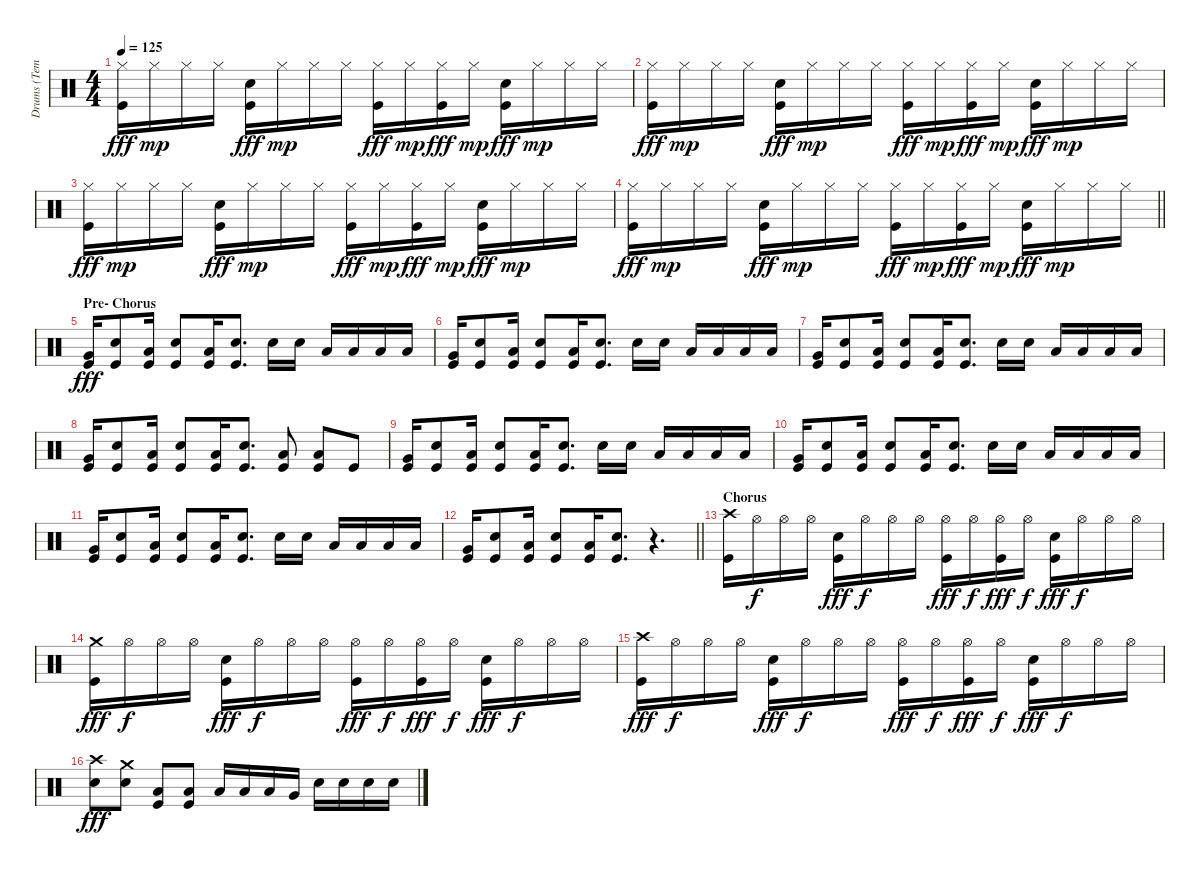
\track ("Drums (Tempesta)" "Drums (Tem") {instrument percussion}
\staff {score}
\articulation defaults
\ts (4 4)
\tempo 125
\clef neutral
\ks c
("Hi-Hat (closed)" "Kick (hit)").16{dy fff} "Hi-Hat (closed)".16{dy mp} "Hi-Hat (closed)".16 "Hi-Hat (closed)".16 ("Electric Snare (hit)" "Kick (hit)").16{dy fff} "Hi-Hat (closed)".16{dy mp} "Hi-Hat (closed)".16 "Hi-Hat (closed)".16 ("Hi-Hat (closed)" "Kick (hit)").16{dy fff} "Hi-Hat (closed)".16{dy mp} ("Hi-Hat (closed)" "Kick (hit)").16{dy fff} "Hi-Hat (closed)".16{dy mp} ("Electric Snare (hit)" "Kick (hit)").16{dy fff} "Hi-Hat (closed)".16{dy mp} "Hi-Hat (closed)".16 "Hi-Hat (closed)".16 |
("Hi-Hat (closed)" "Kick (hit)").16{dy fff} "Hi-Hat (closed)".16{dy mp} "Hi-Hat (closed)".16 "Hi-Hat (closed)".16 ("Electric Snare (hit)" "Kick (hit)").16{dy fff} "Hi-Hat (closed)".16{dy mp} "Hi-Hat (closed)".16 "Hi-Hat (closed)".16 ("Hi-Hat (closed)" "Kick (hit)").16{dy fff} "Hi-Hat (closed)".16{dy mp} ("Hi-Hat (closed)" "Kick (hit)").16{dy fff} "Hi-Hat (closed)".16{dy mp} ("Electric Snare (hit)" "Kick (hit)").16{dy fff} "Hi-Hat (closed)".16{dy mp} "Hi-Hat (closed)".16 "Hi-Hat (closed)".16 |
("Hi-Hat (closed)" "Kick (hit)").16{dy fff} "Hi-Hat (closed)".16{dy mp} "Hi-Hat (closed)".16 "Hi-Hat (closed)".16 ("Electric Snare (hit)" "Kick (hit)").16{dy fff} "Hi-Hat (closed)".16{dy mp} "Hi-Hat (closed)".16 "Hi-Hat (closed)".16 ("Hi-Hat (closed)" "Kick (hit)").16{dy fff} "Hi-Hat (closed)".16{dy mp} ("Hi-Hat (closed)" "Kick (hit)").16{dy fff} "Hi-Hat (closed)".16{dy mp} ("Electric Snare (hit)" "Kick (hit)").16{dy fff} "Hi-Hat (closed)".16{dy mp} "Hi-Hat (closed)".16 "Hi-Hat (closed)".16 |
\barLineRight lightlight
("Hi-Hat (closed)" "Kick (hit)").16{dy fff} "Hi-Hat (closed)".16{dy mp} "Hi-Hat (closed)".16 "Hi-Hat (closed)".16 ("Electric Snare (hit)" "Kick (hit)").16{dy fff} "Hi-Hat (closed)".16{dy mp} "Hi-Hat (closed)".16 "Hi-Hat (closed)".16 ("Hi-Hat (closed)" "Kick (hit)").16{dy fff} "Hi-Hat (closed)".16{dy mp} ("Hi-Hat (closed)" "Kick (hit)").16{dy fff} "Hi-Hat (closed)".16{dy mp} ("Electric Snare (hit)" "Kick (hit)").16{dy fff} "Hi-Hat (closed)".16{dy mp} "Hi-Hat (closed)".16 "Hi-Hat (closed)".16 |
\section ("" "Pre- Chorus")
("Very Low Tom (hit)" "Kick (hit)").16{dy fff} ("Electric Snare (hit)" "Kick (hit)").8 ("Low Floor Tom (hit)" "Kick (hit)").16 ("Electric Snare (hit)" "Kick (hit)").8 ("Low Floor Tom (hit)" "Kick (hit)").16 ("Electric Snare (hit)" "Kick (hit)").8{d} "Electric Snare (hit)".16 "Electric Snare (hit)".16 "Low Tom (hit)".16 "Low Tom (hit)".16 "Low Floor Tom (hit)".16 "Low Floor Tom (hit)".16 |
("Very Low Tom (hit)" "Kick (hit)").16 ("Electric Snare (hit)" "Kick (hit)").8 ("Low Floor Tom (hit)" "Kick (hit)").16 ("Electric Snare (hit)" "Kick (hit)").8 ("Low Floor Tom (hit)" "Kick (hit)").16 ("Electric Snare (hit)" "Kick (hit)").8{d} "Electric Snare (hit)".16 "Electric Snare (hit)".16 "Low Tom (hit)".16 "Low Tom (hit)".16 "Low Floor Tom (hit)".16 "Low Floor Tom (hit)".16 |
("Very Low Tom (hit)" "Kick (hit)").16 ("Electric Snare (hit)" "Kick (hit)").8 ("Low Floor Tom (hit)" "Kick (hit)").16 ("Electric Snare (hit)" "Kick (hit)").8 ("Low Floor Tom (hit)" "Kick (hit)").16 ("Electric Snare (hit)" "Kick (hit)").8{d} "Electric Snare (hit)".16 "Electric Snare (hit)".16 "Low Tom (hit)".16 "Low Tom (hit)".16 "Low Floor Tom (hit)".16 "Low Floor Tom (hit)".16 |
("Very Low Tom (hit)" "Kick (hit)").16 ("Electric Snare (hit)" "Kick (hit)").8 ("Low Floor Tom (hit)" "Kick (hit)").16 ("Electric Snare (hit)" "Kick (hit)").8 ("Low Floor Tom (hit)" "Kick (hit)").16 ("Electric Snare (hit)" "Kick (hit)").8{d} ("Low Floor Tom (hit)" "Kick (hit)").8 ("Low Floor Tom (hit)" "Kick (hit)").8 "Kick (hit)".8 |
("Very Low Tom (hit)" "Kick (hit)").16 ("Electric Snare (hit)" "Kick (hit)").8 ("Low Floor Tom (hit)" "Kick (hit)").16 ("Electric Snare (hit)" "Kick (hit)").8 ("Low Floor Tom (hit)" "Kick (hit)").16 ("Electric Snare (hit)" "Kick (hit)").8{d} "Electric Snare (hit)".16 "Electric Snare (hit)".16 "Low Tom (hit)".16 "Low Tom (hit)".16 "Low Floor Tom (hit)".16 "Low Floor Tom (hit)".16 |
("Very Low Tom (hit)" "Kick (hit)").16 ("Electric Snare (hit)" "Kick (hit)").8 ("Low Floor Tom (hit)" "Kick (hit)").16 ("Electric Snare (hit)" "Kick (hit)").8 ("Low Floor Tom (hit)" "Kick (hit)").16 ("Electric Snare (hit)" "Kick (hit)").8{d} "Electric Snare (hit)".16 "Electric Snare (hit)".16 "Low Tom (hit)".16 "Low Tom (hit)".16 "Low Floor Tom (hit)".16 "Low Floor Tom (hit)".16 |
("Very Low Tom (hit)" "Kick (hit)").16 ("Electric Snare (hit)" "Kick (hit)").8 ("Low Floor Tom (hit)" "Kick (hit)").16 ("Electric Snare (hit)" "Kick (hit)").8 ("Low Floor Tom (hit)" "Kick (hit)").16 ("Electric Snare (hit)" "Kick (hit)").8{d} "Electric Snare (hit)".16 "Electric Snare (hit)".16 "Low Tom (hit)".16 "Low Tom (hit)".16 "Low Floor Tom (hit)".16 "Low Floor Tom (hit)".16 |
\barLineRight lightlight
("Very Low Tom (hit)" "Kick (hit)").16 ("Electric Snare (hit)" "Kick (hit)").8 ("Low Floor Tom (hit)" "Kick (hit)").16 ("Electric Snare (hit)" "Kick (hit)").8 ("Low Floor Tom (hit)" "Kick (hit)").16 ("Electric Snare (hit)" "Kick (hit)").8{d} r.4{d} |
\section ("" "Chorus")
("Crash high (hit)" "Kick (hit)").16 "Hi-Hat (open)".16{dy f} "Hi-Hat (open)".16 "Hi-Hat (open)".16 ("Electric Snare (hit)" "Kick (hit)").16{dy fff} "Hi-Hat (open)".16{dy f} "Hi-Hat (open)".16 "Hi-Hat (open)".16 ("Hi-Hat (open)" "Kick (hit)").16{dy fff} "Hi-Hat (open)".16{dy f} ("Hi-Hat (open)" "Kick (hit)").16{dy fff} "Hi-Hat (open)".16{dy f} ("Electric Snare (hit)" "Kick (hit)").16{dy fff} "Hi-Hat (open)".16{dy f} "Hi-Hat (open)".16 "Hi-Hat (open)".16 |
("Crash medium (hit)" "Kick (hit)").16{dy fff} "Hi-Hat (open)".16{dy f} "Hi-Hat (open)".16 "Hi-Hat (open)".16 ("Electric Snare (hit)" "Kick (hit)").16{dy fff} "Hi-Hat (open)".16{dy f} "Hi-Hat (open)".16 "Hi-Hat (open)".16 ("Hi-Hat (open)" "Kick (hit)").16{dy fff} "Hi-Hat (open)".16{dy f} ("Hi-Hat (open)" "Kick (hit)").16{dy fff} "Hi-Hat (open)".16{dy f} ("Electric Snare (hit)" "Kick (hit)").16{dy fff} "Hi-Hat (open)".16{dy f} "Hi-Hat (open)".16 "Hi-Hat (open)".16 |
("Crash high (hit)" "Kick (hit)").16{dy fff} "Hi-Hat (open)".16{dy f} "Hi-Hat (open)".16 "Hi-Hat (open)".16 ("Electric Snare (hit)" "Kick (hit)").16{dy fff} "Hi-Hat (open)".16{dy f} "Hi-Hat (open)".16 "Hi-Hat (open)".16 ("Hi-Hat (open)" "Kick (hit)").16{dy fff} "Hi-Hat (open)".16{dy f} ("Hi-Hat (open)" "Kick (hit)").16{dy fff} "Hi-Hat (open)".16{dy f} ("Electric Snare (hit)" "Kick (hit)").16{dy fff} "Hi-Hat (open)".16{dy f} "Hi-Hat (open)".16 "Hi-Hat (open)".16 |
("Crash high (hit)" "Electric Snare (hit)").8{dy fff} ("Crash medium (hit)" "Electric Snare (hit)").8 ("Low Floor Tom (hit)" "Kick (hit)").8 ("Low Floor Tom (hit)" "Kick (hit)").8 "Low Tom (hit)".16 "Low Tom (hit)".16 "Low Tom (hit)".16 "Very Low Tom (hit)".16 "Electric Snare (hit)".16 "Electric Snare (hit)".16 "Electric Snare (hit)".16 "Electric Snare (hit)".16
